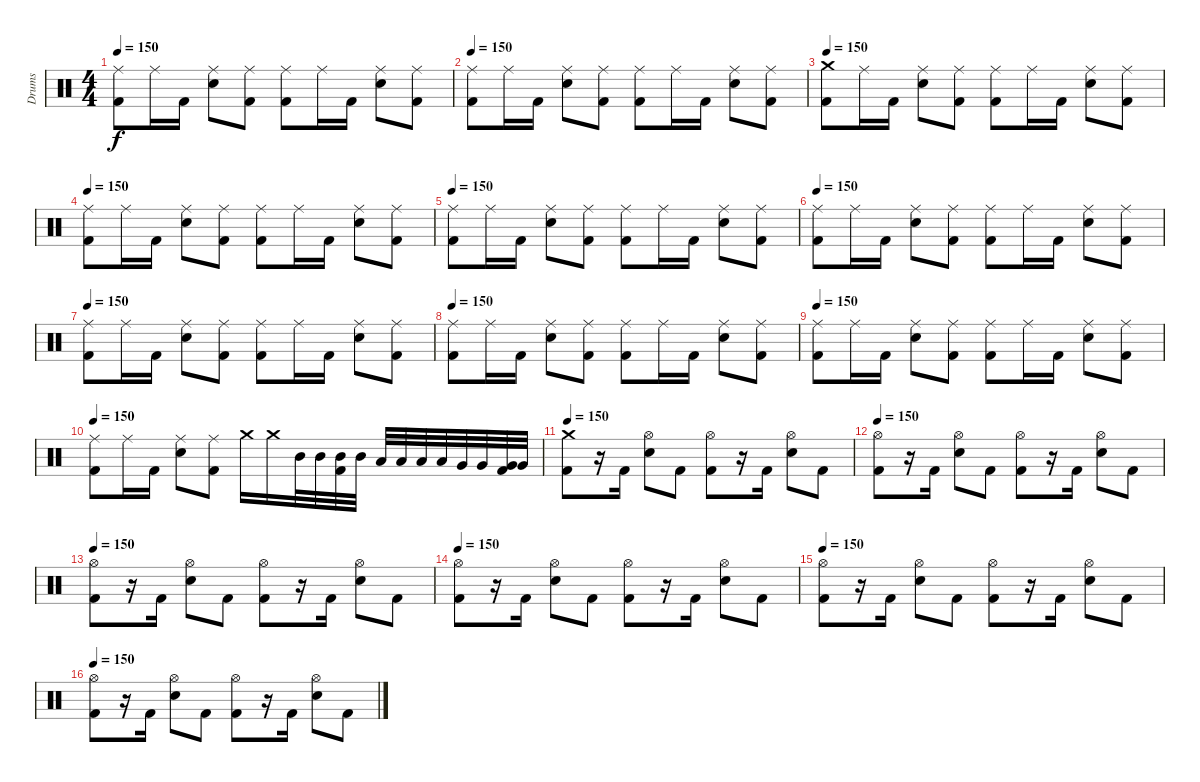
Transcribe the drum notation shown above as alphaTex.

\track ("Drums" "Drums") {instrument percussion}
\staff {score}
\articulation defaults
\ts (4 4)
\tempo 150
\clef neutral
\ks c
("Kick (hit) 2" "Ride (middle)").8{dy f} "Ride (middle)".16 "Kick (hit) 2".16 ("Electric Snare (hit)" "Ride (middle)").8 ("Kick (hit) 2" "Ride (middle)").8 ("Kick (hit) 2" "Ride (middle)").8 "Ride (middle)".16 "Kick (hit) 2".16 ("Electric Snare (hit)" "Ride (middle)").8 ("Kick (hit) 2" "Ride (middle)").8 |
\tempo 150
("Kick (hit) 2" "Ride (middle)").8 "Ride (middle)".16 "Kick (hit) 2".16 ("Electric Snare (hit)" "Ride (middle)").8 ("Kick (hit) 2" "Ride (middle)").8 ("Kick (hit) 2" "Ride (middle)").8 "Ride (middle)".16 "Kick (hit) 2".16 ("Electric Snare (hit)" "Ride (middle)").8 ("Kick (hit) 2" "Ride (middle)").8 |
\tempo 150
("Kick (hit) 2" "Crash medium (hit)").8 "Ride (middle)".16 "Kick (hit) 2".16 ("Electric Snare (hit)" "Ride (middle)").8 ("Kick (hit) 2" "Ride (middle)").8 ("Kick (hit) 2" "Ride (middle)").8 "Ride (middle)".16 "Kick (hit) 2".16 ("Electric Snare (hit)" "Ride (middle)").8 ("Kick (hit) 2" "Ride (middle)").8 |
\tempo 150
("Kick (hit) 2" "Ride (middle)").8 "Ride (middle)".16 "Kick (hit) 2".16 ("Electric Snare (hit)" "Ride (middle)").8 ("Kick (hit) 2" "Ride (middle)").8 ("Kick (hit) 2" "Ride (middle)").8 "Ride (middle)".16 "Kick (hit) 2".16 ("Electric Snare (hit)" "Ride (middle)").8 ("Kick (hit) 2" "Ride (middle)").8 |
\tempo 150
("Kick (hit) 2" "Ride (middle)").8 "Ride (middle)".16 "Kick (hit) 2".16 ("Electric Snare (hit)" "Ride (middle)").8 ("Kick (hit) 2" "Ride (middle)").8 ("Kick (hit) 2" "Ride (middle)").8 "Ride (middle)".16 "Kick (hit) 2".16 ("Electric Snare (hit)" "Ride (middle)").8 ("Kick (hit) 2" "Ride (middle)").8 |
\tempo 150
("Kick (hit) 2" "Ride (middle)").8 "Ride (middle)".16 "Kick (hit) 2".16 ("Electric Snare (hit)" "Ride (middle)").8 ("Kick (hit) 2" "Ride (middle)").8 ("Kick (hit) 2" "Ride (middle)").8 "Ride (middle)".16 "Kick (hit) 2".16 ("Electric Snare (hit)" "Ride (middle)").8 ("Kick (hit) 2" "Ride (middle)").8 |
\tempo 150
("Kick (hit) 2" "Ride (middle)").8 "Ride (middle)".16 "Kick (hit) 2".16 ("Electric Snare (hit)" "Ride (middle)").8 ("Kick (hit) 2" "Ride (middle)").8 ("Kick (hit) 2" "Ride (middle)").8 "Ride (middle)".16 "Kick (hit) 2".16 ("Electric Snare (hit)" "Ride (middle)").8 ("Kick (hit) 2" "Ride (middle)").8 |
\tempo 150
("Kick (hit) 2" "Ride (middle)").8 "Ride (middle)".16 "Kick (hit) 2".16 ("Electric Snare (hit)" "Ride (middle)").8 ("Kick (hit) 2" "Ride (middle)").8 ("Kick (hit) 2" "Ride (middle)").8 "Ride (middle)".16 "Kick (hit) 2".16 ("Electric Snare (hit)" "Ride (middle)").8 ("Kick (hit) 2" "Ride (middle)").8 |
\tempo 150
("Kick (hit) 2" "Ride (middle)").8 "Ride (middle)".16 "Kick (hit) 2".16 ("Electric Snare (hit)" "Ride (middle)").8 ("Kick (hit) 2" "Ride (middle)").8 ("Kick (hit) 2" "Ride (middle)").8 "Ride (middle)".16 "Kick (hit) 2".16 ("Electric Snare (hit)" "Ride (middle)").8 ("Kick (hit) 2" "Ride (middle)").8 |
\tempo 150
("Kick (hit) 2" "Ride (middle)").8 "Ride (middle)".16 "Kick (hit) 2".16 ("Electric Snare (hit)" "Ride (middle)").8 ("Kick (hit) 2" "Ride (middle)").8 "Crash medium (hit)".16 "Crash medium (hit)".16 "Mid Tom (hit)".32 "Mid Tom (hit)".32 ("Mid Tom (hit)" "Kick (hit) 2").32 "Mid Tom (hit)".32 "Low Tom (hit)".32 "Low Tom (hit)".32 "Low Tom (hit)".32 "Low Tom (hit)".32 "Very Low Tom (hit)".32 "Very Low Tom (hit)".32 ("Very Low Tom (hit)" "Kick (hit) 2").32 "Very Low Tom (hit)".32 |
\tempo 150
("Kick (hit) 2" "Crash medium (hit)").8 r.16 "Kick (hit) 2".16 ("Electric Snare (hit)" "Hi-Hat (open)").8 "Kick (hit) 2".8 ("Kick (hit) 2" "Hi-Hat (open)").8 r.16 "Kick (hit) 2".16 ("Electric Snare (hit)" "Hi-Hat (open)").8 "Kick (hit) 2".8 |
\tempo 150
("Kick (hit) 2" "Hi-Hat (open)").8 r.16 "Kick (hit) 2".16 ("Electric Snare (hit)" "Hi-Hat (open)").8 "Kick (hit) 2".8 ("Kick (hit) 2" "Hi-Hat (open)").8 r.16 "Kick (hit) 2".16 ("Electric Snare (hit)" "Hi-Hat (open)").8 "Kick (hit) 2".8 |
\tempo 150
("Kick (hit) 2" "Hi-Hat (open)").8 r.16 "Kick (hit) 2".16 ("Electric Snare (hit)" "Hi-Hat (open)").8 "Kick (hit) 2".8 ("Kick (hit) 2" "Hi-Hat (open)").8 r.16 "Kick (hit) 2".16 ("Electric Snare (hit)" "Hi-Hat (open)").8 "Kick (hit) 2".8 |
\tempo 150
("Kick (hit) 2" "Hi-Hat (open)").8 r.16 "Kick (hit) 2".16 ("Electric Snare (hit)" "Hi-Hat (open)").8 "Kick (hit) 2".8 ("Kick (hit) 2" "Hi-Hat (open)").8 r.16 "Kick (hit) 2".16 ("Electric Snare (hit)" "Hi-Hat (open)").8 "Kick (hit) 2".8 |
\tempo 150
("Kick (hit) 2" "Hi-Hat (open)").8 r.16 "Kick (hit) 2".16 ("Electric Snare (hit)" "Hi-Hat (open)").8 "Kick (hit) 2".8 ("Kick (hit) 2" "Hi-Hat (open)").8 r.16 "Kick (hit) 2".16 ("Electric Snare (hit)" "Hi-Hat (open)").8 "Kick (hit) 2".8 |
\tempo 150
("Kick (hit) 2" "Hi-Hat (open)").8 r.16 "Kick (hit) 2".16 ("Electric Snare (hit)" "Hi-Hat (open)").8 "Kick (hit) 2".8 ("Kick (hit) 2" "Hi-Hat (open)").8 r.16 "Kick (hit) 2".16 ("Electric Snare (hit)" "Hi-Hat (open)").8 "Kick (hit) 2".8
